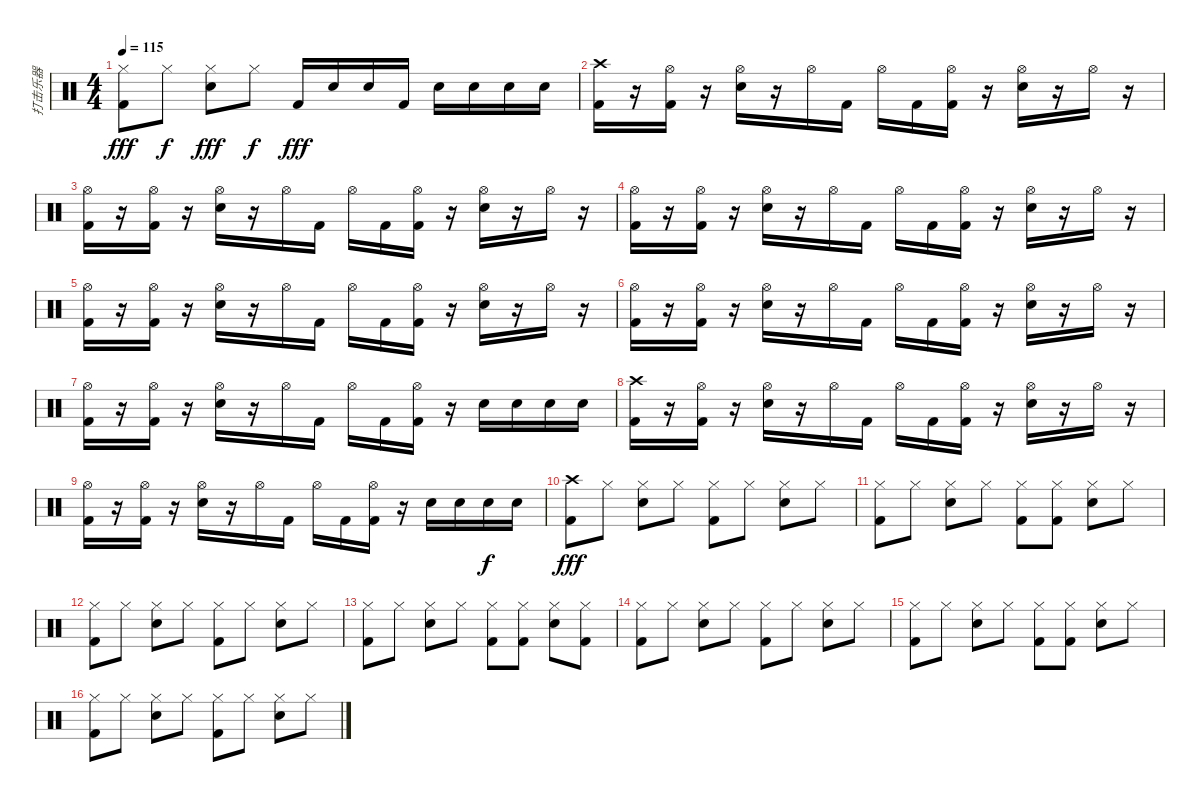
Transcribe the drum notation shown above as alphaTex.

\track ("打击乐器" "打击乐器") {instrument percussion}
\staff {score}
\articulation defaults
\ts (4 4)
\tempo 115
\clef neutral
\ks c
("Hi-Hat (closed)" "Kick (hit) 2").8{dy fff} "Hi-Hat (closed)".8{dy f} ("Hi-Hat (closed)" "Electric Snare (hit)").8{dy fff} "Hi-Hat (closed)".8{dy f} "Kick (hit) 2".16{dy fff} "Electric Snare (hit)".16 "Snare (hit)".16 "Kick (hit) 2".16 "Electric Snare (hit)".16 "Electric Snare (hit)".16 "Electric Snare (hit)".16 "Electric Snare (hit)".16 |
("Crash high (hit)" "Kick (hit) 2").16 r.16 ("Hi-Hat (open)" "Kick (hit) 2").16 r.16 ("Hi-Hat (open)" "Electric Snare (hit)").16 r.16 "Hi-Hat (open)".16 "Kick (hit) 2".16 "Hi-Hat (open)".16 "Kick (hit) 2".16 ("Hi-Hat (open)" "Kick (hit) 2").16 r.16 ("Hi-Hat (open)" "Electric Snare (hit)").16 r.16 "Hi-Hat (open)".16 r.16 |
("Hi-Hat (open)" "Kick (hit) 2").16 r.16 ("Hi-Hat (open)" "Kick (hit) 2").16 r.16 ("Hi-Hat (open)" "Electric Snare (hit)").16 r.16 "Hi-Hat (open)".16 "Kick (hit) 2".16 "Hi-Hat (open)".16 "Kick (hit) 2".16 ("Hi-Hat (open)" "Kick (hit) 2").16 r.16 ("Hi-Hat (open)" "Electric Snare (hit)").16 r.16 "Hi-Hat (open)".16 r.16 |
("Hi-Hat (open)" "Kick (hit) 2").16 r.16 ("Hi-Hat (open)" "Kick (hit) 2").16 r.16 ("Hi-Hat (open)" "Electric Snare (hit)").16 r.16 "Hi-Hat (open)".16 "Kick (hit) 2".16 "Hi-Hat (open)".16 "Kick (hit) 2".16 ("Hi-Hat (open)" "Kick (hit) 2").16 r.16 ("Hi-Hat (open)" "Electric Snare (hit)").16 r.16 "Hi-Hat (open)".16 r.16 |
("Hi-Hat (open)" "Kick (hit) 2").16 r.16 ("Hi-Hat (open)" "Kick (hit) 2").16 r.16 ("Hi-Hat (open)" "Electric Snare (hit)").16 r.16 "Hi-Hat (open)".16 "Kick (hit) 2".16 "Hi-Hat (open)".16 "Kick (hit) 2".16 ("Hi-Hat (open)" "Kick (hit) 2").16 r.16 ("Hi-Hat (open)" "Electric Snare (hit)").16 r.16 "Hi-Hat (open)".16 r.16 |
("Hi-Hat (open)" "Kick (hit) 2").16 r.16 ("Hi-Hat (open)" "Kick (hit) 2").16 r.16 ("Hi-Hat (open)" "Electric Snare (hit)").16 r.16 "Hi-Hat (open)".16 "Kick (hit) 2".16 "Hi-Hat (open)".16 "Kick (hit) 2".16 ("Hi-Hat (open)" "Kick (hit) 2").16 r.16 ("Hi-Hat (open)" "Electric Snare (hit)").16 r.16 "Hi-Hat (open)".16 r.16 |
("Hi-Hat (open)" "Kick (hit) 2").16 r.16 ("Hi-Hat (open)" "Kick (hit) 2").16 r.16 ("Hi-Hat (open)" "Electric Snare (hit)").16 r.16 "Hi-Hat (open)".16 "Kick (hit) 2".16 "Hi-Hat (open)".16 "Kick (hit) 2".16 ("Hi-Hat (open)" "Kick (hit) 2").16 r.16 "Electric Snare (hit)".16 "Electric Snare (hit)".16 "Electric Snare (hit)".16 "Electric Snare (hit)".16 |
("Crash high (hit)" "Kick (hit) 2").16 r.16 ("Hi-Hat (open)" "Kick (hit) 2").16 r.16 ("Hi-Hat (open)" "Electric Snare (hit)").16 r.16 "Hi-Hat (open)".16 "Kick (hit) 2".16 "Hi-Hat (open)".16 "Kick (hit) 2".16 ("Hi-Hat (open)" "Kick (hit) 2").16 r.16 ("Hi-Hat (open)" "Electric Snare (hit)").16 r.16 "Hi-Hat (open)".16 r.16 |
("Hi-Hat (open)" "Kick (hit) 2").16 r.16 ("Hi-Hat (open)" "Kick (hit) 2").16 r.16 ("Hi-Hat (open)" "Electric Snare (hit)").16 r.16 "Hi-Hat (open)".16 "Kick (hit) 2".16 "Hi-Hat (open)".16 "Kick (hit) 2".16 ("Hi-Hat (open)" "Kick (hit) 2").16 r.16 "Electric Snare (hit)".16 "Electric Snare (hit)".16 "Electric Snare (hit)".16{dy f} "Electric Snare (hit)".16 |
("Crash high (hit)" "Kick (hit) 2").8{dy fff} "Hi-Hat (closed)".8 ("Hi-Hat (closed)" "Electric Snare (hit)").8 "Hi-Hat (closed)".8 ("Hi-Hat (closed)" "Kick (hit) 2").8 "Hi-Hat (closed)".8 ("Hi-Hat (closed)" "Electric Snare (hit)").8 "Hi-Hat (closed)".8 |
("Hi-Hat (closed)" "Kick (hit) 2").8 "Hi-Hat (closed)".8 ("Hi-Hat (closed)" "Electric Snare (hit)").8 "Hi-Hat (closed)".8 ("Hi-Hat (closed)" "Kick (hit) 2").8 ("Hi-Hat (closed)" "Kick (hit) 2").8 ("Hi-Hat (closed)" "Electric Snare (hit)").8 "Hi-Hat (closed)".8 |
("Hi-Hat (closed)" "Kick (hit) 2").8 "Hi-Hat (closed)".8 ("Hi-Hat (closed)" "Electric Snare (hit)").8 "Hi-Hat (closed)".8 ("Hi-Hat (closed)" "Kick (hit) 2").8 "Hi-Hat (closed)".8 ("Hi-Hat (closed)" "Electric Snare (hit)").8 "Hi-Hat (closed)".8 |
("Hi-Hat (closed)" "Kick (hit) 2").8 "Hi-Hat (closed)".8 ("Hi-Hat (closed)" "Electric Snare (hit)").8 "Hi-Hat (closed)".8 ("Hi-Hat (closed)" "Kick (hit) 2").8 ("Hi-Hat (closed)" "Kick (hit) 2").8 ("Hi-Hat (closed)" "Electric Snare (hit)").8 ("Hi-Hat (closed)" "Kick (hit) 2").8 |
("Hi-Hat (closed)" "Kick (hit) 2").8 "Hi-Hat (closed)".8 ("Hi-Hat (closed)" "Electric Snare (hit)").8 "Hi-Hat (closed)".8 ("Hi-Hat (closed)" "Kick (hit) 2").8 "Hi-Hat (closed)".8 ("Hi-Hat (closed)" "Electric Snare (hit)").8 "Hi-Hat (closed)".8 |
("Hi-Hat (closed)" "Kick (hit) 2").8 "Hi-Hat (closed)".8 ("Hi-Hat (closed)" "Electric Snare (hit)").8 "Hi-Hat (closed)".8 ("Hi-Hat (closed)" "Kick (hit) 2").8 ("Hi-Hat (closed)" "Kick (hit) 2").8 ("Hi-Hat (closed)" "Electric Snare (hit)").8 "Hi-Hat (closed)".8 |
("Hi-Hat (closed)" "Kick (hit) 2").8 "Hi-Hat (closed)".8 ("Hi-Hat (closed)" "Electric Snare (hit)").8 "Hi-Hat (closed)".8 ("Hi-Hat (closed)" "Kick (hit) 2").8 "Hi-Hat (closed)".8 ("Hi-Hat (closed)" "Electric Snare (hit)").8 "Hi-Hat (closed)".8
